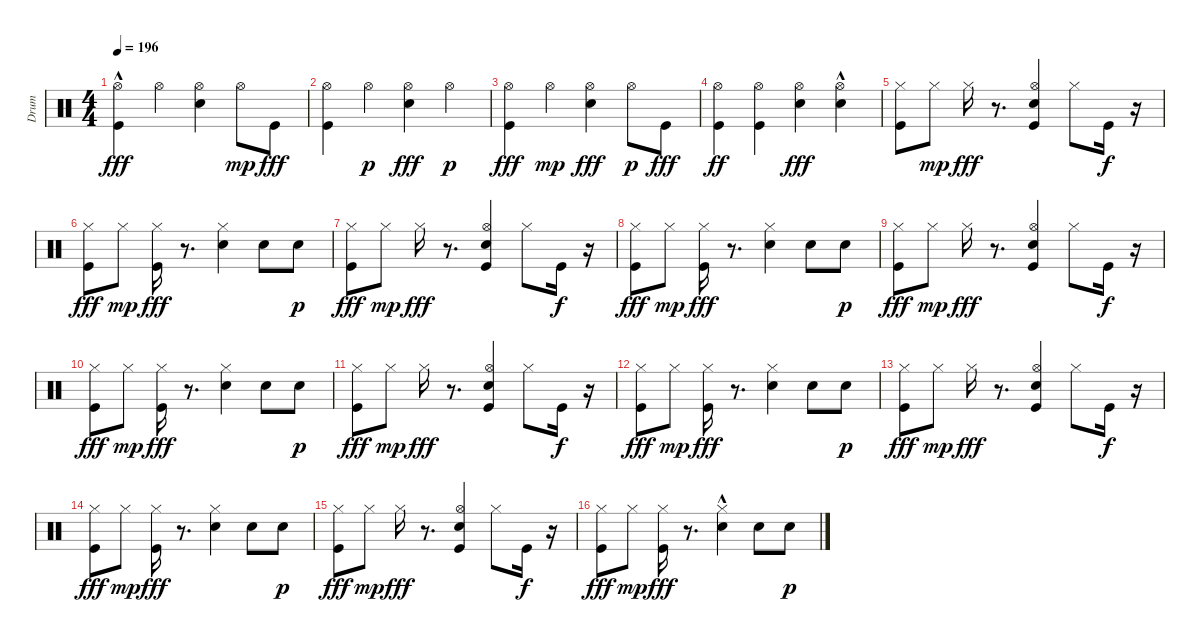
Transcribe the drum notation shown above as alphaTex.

\track ("Drum" "Drum") {instrument percussion}
\staff {score}
\articulation defaults
\ts (4 4)
\tempo 196
\clef neutral
\ks c
("Kick (hit)"{hac} "Hi-Hat (open)").4{dy fff} "Hi-Hat (open)".4 ("Hi-Hat (open)" "Snare (hit) 2").4 "Hi-Hat (open)".8{dy mp} "Kick (hit)".8{dy fff} |
("Kick (hit)" "Hi-Hat (open)").4 "Hi-Hat (open)".4{dy p} ("Snare (hit) 2" "Hi-Hat (open)").4{dy fff} "Hi-Hat (open)".4{dy p} |
("Kick (hit)" "Hi-Hat (open)").4{dy fff} "Hi-Hat (open)".4{dy mp} ("Hi-Hat (open)" "Snare (hit) 2").4{dy fff} "Hi-Hat (open)".8{dy p} "Kick (hit)".8{dy fff} |
("Kick (hit)" "Hi-Hat (open)").4{dy ff} ("Kick (hit)" "Hi-Hat (open)").4 ("Hi-Hat (open)" "Snare (hit) 2").4{dy fff} ("Metronome (bell)" "Hi-Hat (open)"{hac}).4 |
("Hi-Hat (closed)" "Kick (hit)").8 "Hi-Hat (closed)".8{dy mp} "Hi-Hat (closed)".16{dy fff} r.8{d} ("Kick (hit)" "Hi-Hat (open)" "Snare (hit) 2").4 "Hi-Hat (closed)".8 "Kick (hit)".16{dy f} r.16 |
("Kick (hit)" "Hi-Hat (closed)").8{dy fff} "Hi-Hat (closed)".8{dy mp} ("Kick (hit)" "Hi-Hat (closed)").16{dy fff} r.8{d} ("Snare (hit) 2" "Hi-Hat (closed)").4 "Snare (hit) 2".8 "Snare (hit) 2".8{dy p} |
("Hi-Hat (closed)" "Kick (hit)").8{dy fff} "Hi-Hat (closed)".8{dy mp} "Hi-Hat (closed)".16{dy fff} r.8{d} ("Kick (hit)" "Hi-Hat (open)" "Snare (hit) 2").4 "Hi-Hat (closed)".8 "Kick (hit)".16{dy f} r.16 |
("Kick (hit)" "Hi-Hat (closed)").8{dy fff} "Hi-Hat (closed)".8{dy mp} ("Kick (hit)" "Hi-Hat (closed)").16{dy fff} r.8{d} ("Snare (hit) 2" "Hi-Hat (closed)").4 "Snare (hit) 2".8 "Snare (hit) 2".8{dy p} |
("Hi-Hat (closed)" "Kick (hit)").8{dy fff} "Hi-Hat (closed)".8{dy mp} "Hi-Hat (closed)".16{dy fff} r.8{d} ("Kick (hit)" "Hi-Hat (open)" "Snare (hit) 2").4 "Hi-Hat (closed)".8 "Kick (hit)".16{dy f} r.16 |
("Kick (hit)" "Hi-Hat (closed)").8{dy fff} "Hi-Hat (closed)".8{dy mp} ("Kick (hit)" "Hi-Hat (closed)").16{dy fff} r.8{d} ("Snare (hit) 2" "Hi-Hat (closed)").4 "Snare (hit) 2".8 "Snare (hit) 2".8{dy p} |
("Hi-Hat (closed)" "Kick (hit)").8{dy fff} "Hi-Hat (closed)".8{dy mp} "Hi-Hat (closed)".16{dy fff} r.8{d} ("Kick (hit)" "Hi-Hat (open)" "Snare (hit) 2").4 "Hi-Hat (closed)".8 "Kick (hit)".16{dy f} r.16 |
("Kick (hit)" "Hi-Hat (closed)").8{dy fff} "Hi-Hat (closed)".8{dy mp} ("Kick (hit)" "Hi-Hat (closed)").16{dy fff} r.8{d} ("Snare (hit) 2" "Hi-Hat (closed)").4 "Snare (hit) 2".8 "Snare (hit) 2".8{dy p} |
("Hi-Hat (closed)" "Kick (hit)").8{dy fff} "Hi-Hat (closed)".8{dy mp} "Hi-Hat (closed)".16{dy fff} r.8{d} ("Kick (hit)" "Hi-Hat (open)" "Snare (hit) 2").4 "Hi-Hat (closed)".8 "Kick (hit)".16{dy f} r.16 |
("Kick (hit)" "Hi-Hat (closed)").8{dy fff} "Hi-Hat (closed)".8{dy mp} ("Kick (hit)" "Hi-Hat (closed)").16{dy fff} r.8{d} ("Snare (hit) 2" "Hi-Hat (closed)").4 "Snare (hit) 2".8 "Snare (hit) 2".8{dy p} |
("Hi-Hat (closed)" "Kick (hit)").8{dy fff} "Hi-Hat (closed)".8{dy mp} "Hi-Hat (closed)".16{dy fff} r.8{d} ("Kick (hit)" "Hi-Hat (open)" "Snare (hit) 2").4 "Hi-Hat (closed)".8 "Kick (hit)".16{dy f} r.16 |
("Kick (hit)" "Hi-Hat (closed)").8{dy fff} "Hi-Hat (closed)".8{dy mp} ("Kick (hit)" "Hi-Hat (closed)").16{dy fff} r.8{d} ("Snare (hit) 2" "Hi-Hat (closed)"{hac}).4 "Snare (hit) 2".8 "Snare (hit) 2".8{dy p}
